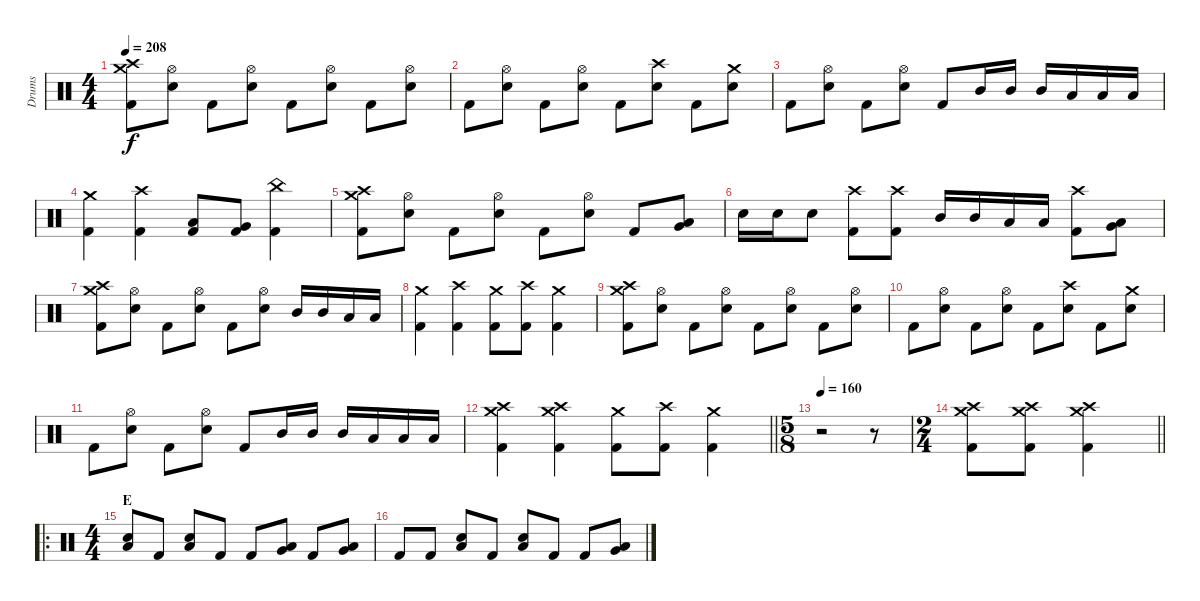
\track ("Drums" "Drums") {instrument percussion}
\staff {score}
\articulation defaults
\ts (4 4)
\tempo 208
\clef neutral
\ks c
("Crash medium (hit)" "Crash high (hit)" "Kick (hit) 2").8{dy f} ("Hi-Hat (open)" "Electric Snare (hit)").8 "Kick (hit) 2".8 ("Hi-Hat (open)" "Electric Snare (hit)").8 "Kick (hit) 2".8 ("Hi-Hat (open)" "Electric Snare (hit)").8 "Kick (hit) 2".8 ("Hi-Hat (open)" "Electric Snare (hit)").8 |
"Kick (hit) 2".8 ("Hi-Hat (open)" "Electric Snare (hit)").8 "Kick (hit) 2".8 ("Hi-Hat (open)" "Electric Snare (hit)").8 "Kick (hit) 2".8 ("Crash high (hit)" "Electric Snare (hit)").8 "Kick (hit) 2".8 ("Crash medium (hit)" "Electric Snare (hit)").8 |
"Kick (hit) 2".8 ("Hi-Hat (open)" "Electric Snare (hit)").8 "Kick (hit) 2".8 ("Hi-Hat (open)" "Electric Snare (hit)").8 "Kick (hit) 2".8 "Mid Tom (hit)".16 "Mid Tom (hit)".16 "Mid Tom (hit)".16 "Low Tom (hit)".16 "Low Tom (hit)".16 "Low Tom (hit)".16 |
("Crash medium (hit)" "Kick (hit) 2").4 ("Crash high (hit)" "Kick (hit) 2").4 ("Low Tom (hit)" "Kick (hit) 2").8 ("Very Low Tom (hit)" "Kick (hit) 2").8 ("China (hit)" "Kick (hit) 2").4 |
("Crash medium (hit)" "Crash high (hit)" "Kick (hit) 2").8 ("Hi-Hat (open)" "Electric Snare (hit)").8 "Kick (hit) 2".8 ("Hi-Hat (open)" "Electric Snare (hit)").8 "Kick (hit) 2".8 ("Hi-Hat (open)" "Electric Snare (hit)").8 "Kick (hit) 2".8 ("Low Tom (hit)" "Very Low Tom (hit)").8 |
"Electric Snare (hit)".16 "Electric Snare (hit)".16 "Electric Snare (hit)".8 ("Crash high (hit)" "Kick (hit) 2").8 ("Crash high (hit)" "Kick (hit) 2").8 "Mid Tom (hit)".16 "Mid Tom (hit)".16 "Low Tom (hit)".16 "Low Tom (hit)".16 ("Crash high (hit)" "Kick (hit) 2").8 ("Low Tom (hit)" "Very Low Tom (hit)").8 |
("Crash medium (hit)" "Crash high (hit)" "Kick (hit) 2").8 ("Hi-Hat (open)" "Electric Snare (hit)").8 "Kick (hit) 2".8 ("Hi-Hat (open)" "Electric Snare (hit)").8 "Kick (hit) 2".8 ("Hi-Hat (open)" "Electric Snare (hit)").8 "Mid Tom (hit)".16 "Mid Tom (hit)".16 "Low Tom (hit)".16 "Low Tom (hit)".16 |
("Crash medium (hit)" "Kick (hit) 2").4 ("Crash high (hit)" "Kick (hit) 2").4 ("Crash medium (hit)" "Kick (hit) 2").8 ("Crash high (hit)" "Kick (hit) 2").8 ("Crash medium (hit)" "Kick (hit) 2").4 |
("Crash medium (hit)" "Crash high (hit)" "Kick (hit) 2").8 ("Hi-Hat (open)" "Electric Snare (hit)").8 "Kick (hit) 2".8 ("Hi-Hat (open)" "Electric Snare (hit)").8 "Kick (hit) 2".8 ("Hi-Hat (open)" "Electric Snare (hit)").8 "Kick (hit) 2".8 ("Hi-Hat (open)" "Electric Snare (hit)").8 |
"Kick (hit) 2".8 ("Hi-Hat (open)" "Electric Snare (hit)").8 "Kick (hit) 2".8 ("Hi-Hat (open)" "Electric Snare (hit)").8 "Kick (hit) 2".8 ("Crash high (hit)" "Electric Snare (hit)").8 "Kick (hit) 2".8 ("Crash medium (hit)" "Electric Snare (hit)").8 |
"Kick (hit) 2".8 ("Hi-Hat (open)" "Electric Snare (hit)").8 "Kick (hit) 2".8 ("Hi-Hat (open)" "Electric Snare (hit)").8 "Kick (hit) 2".8 "Mid Tom (hit)".16 "Mid Tom (hit)".16 "Mid Tom (hit)".16 "Low Tom (hit)".16 "Low Tom (hit)".16 "Low Tom (hit)".16 |
\barLineRight lightlight
("Crash medium (hit)" "Crash high (hit)" "Kick (hit) 2").4 ("Crash medium (hit)" "Crash high (hit)" "Kick (hit) 2").4 ("Crash medium (hit)" "Kick (hit) 2").8 ("Crash high (hit)" "Kick (hit) 2").8 ("Crash medium (hit)" "Kick (hit) 2").4 |
\ts (5 8)
\section ("" "")
\tempo 160
r.2{volume 0} r.8 |
\ts (2 4)
\barLineRight lightlight
("Crash medium (hit)" "Crash high (hit)" "Kick (hit) 2").8{volume 14} ("Crash medium (hit)" "Crash high (hit)" "Kick (hit) 2").8 ("Crash medium (hit)" "Crash high (hit)" "Kick (hit) 2").4 |
\ro
\ts (4 4)
\section ("" "E")
("Low Tom (hit)" "Electric Snare (hit)").8 "Kick (hit) 2".8 ("Low Tom (hit)" "Electric Snare (hit)").8 "Kick (hit) 2".8 "Kick (hit) 2".8 ("Low Tom (hit)" "Very Low Tom (hit)").8 "Kick (hit) 2".8 ("Very Low Tom (hit)" "Low Floor Tom (hit)").8 |
"Kick (hit) 2".8 "Kick (hit) 2".8 ("Low Tom (hit)" "Electric Snare (hit)").8 "Kick (hit) 2".8 ("Low Tom (hit)" "Electric Snare (hit)").8 "Kick (hit) 2".8 "Kick (hit) 2".8 ("Low Tom (hit)" "Very Low Tom (hit)").8
